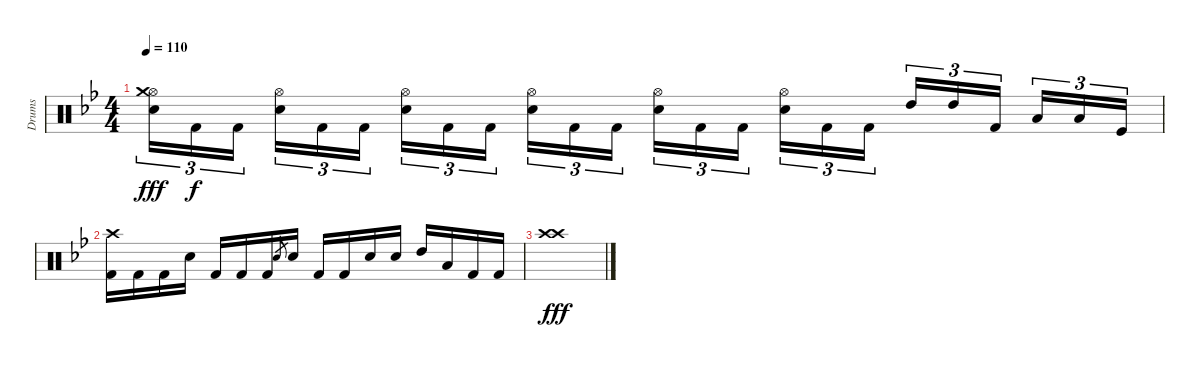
\track ("Drums" "Drums") {instrument percussion}
\staff {score}
\articulation defaults
\ts (4 4)
\tempo 110
\clef neutral
\ks bb
("Electric Snare (hit)" "Hi-Hat (open)" "Crash medium (hit)").16{tu (3 2) dy fff} "Kick (hit) 2".16{tu (3 2) dy f} "Kick (hit) 2".16{tu (3 2) beam splitsecondary} ("Electric Snare (hit)" "Hi-Hat (open)").16{tu (3 2)} "Kick (hit) 2".16{tu (3 2)} "Kick (hit) 2".16{tu (3 2)} ("Electric Snare (hit)" "Hi-Hat (open)").16{tu (3 2)} "Kick (hit) 2".16{tu (3 2)} "Kick (hit) 2".16{tu (3 2) beam splitsecondary} ("Electric Snare (hit)" "Hi-Hat (open)").16{tu (3 2)} "Kick (hit) 2".16{tu (3 2)} "Kick (hit) 2".16{tu (3 2)} ("Electric Snare (hit)" "Hi-Hat (open)").16{tu (3 2)} "Kick (hit) 2".16{tu (3 2)} "Kick (hit) 2".16{tu (3 2) beam splitsecondary} ("Electric Snare (hit)" "Hi-Hat (open)").16{tu (3 2)} "Kick (hit) 2".16{tu (3 2)} "Kick (hit) 2".16{tu (3 2)} "High Tom (hit)".16{tu (3 2)} "High Tom (hit)".16{tu (3 2)} "Kick (hit) 2".16{tu (3 2) beam splitsecondary} "Low Tom (hit)".16{tu (3 2)} "Low Tom (hit)".16{tu (3 2)} "Kick (hit)".16{tu (3 2)} |
("Kick (hit) 2" "Crash high (hit)").16 "Kick (hit) 2".16 "Kick (hit) 2".16 "Electric Snare (hit)".16 "Kick (hit) 2".16 "Kick (hit) 2".16 "Kick (hit) 2".16 "Snare (hit) 2".8{gr} "Electric Snare (hit)".16 "Kick (hit) 2".16 "Kick (hit) 2".16 "Electric Snare (hit)".16 "Electric Snare (hit)".16 "High Tom (hit)".16 "Low Tom (hit)".16 "Kick (hit) 2".16 "Kick (hit) 2".16 |
("Crash high (hit)" "Crash high (hit)").1{dy fff}
